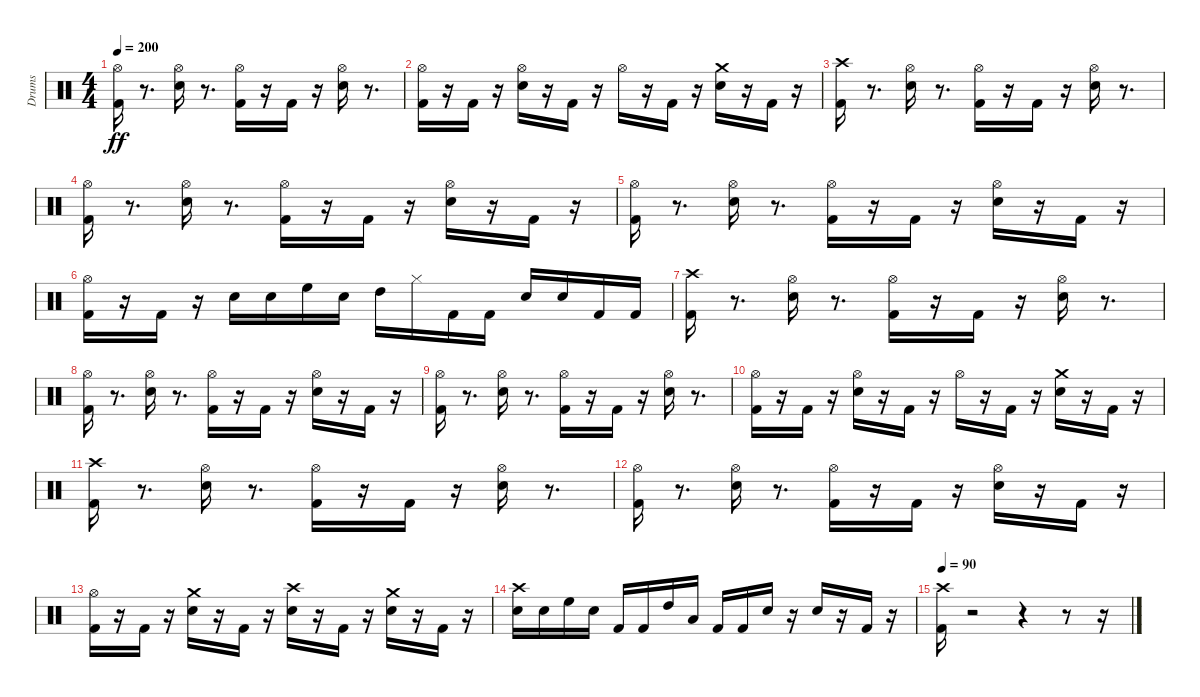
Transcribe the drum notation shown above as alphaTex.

\track ("Drums" "Drums") {instrument percussion}
\staff {score}
\articulation defaults
\ts (4 4)
\tempo 200
\clef neutral
\ks c
("Kick (hit) 2" "Hi-Hat (open)").16{dy ff} r.8{d} ("Snare (hit) 2" "Hi-Hat (open)").16 r.8{d} ("Kick (hit) 2" "Hi-Hat (open)").16 r.16 "Kick (hit) 2".16 r.16 ("Snare (hit) 2" "Hi-Hat (open)").16 r.8{d} |
("Kick (hit) 2" "Hi-Hat (open)").16 r.16 "Kick (hit) 2".16 r.16 ("Snare (hit) 2" "Hi-Hat (open)").16 r.16 "Kick (hit) 2".16 r.16 "Hi-Hat (open)".16 r.16 "Kick (hit) 2".16 r.16 ("Snare (hit) 2" "Crash medium (hit)").16 r.16 "Kick (hit) 2".16 r.16 |
("Kick (hit) 2" "Crash high (hit)").16 r.8{d} ("Snare (hit) 2" "Hi-Hat (open)").16 r.8{d} ("Kick (hit) 2" "Hi-Hat (open)").16 r.16 "Kick (hit) 2".16 r.16 ("Snare (hit) 2" "Hi-Hat (open)").16 r.8{d} |
("Kick (hit) 2" "Hi-Hat (open)").16 r.8{d} ("Snare (hit) 2" "Hi-Hat (open)").16 r.8{d} ("Kick (hit) 2" "Hi-Hat (open)").16 r.16 "Kick (hit) 2".16 r.16 ("Snare (hit) 2" "Hi-Hat (open)").16 r.16 "Kick (hit) 2".16 r.16 |
("Kick (hit) 2" "Hi-Hat (open)").16 r.8{d} ("Snare (hit) 2" "Hi-Hat (open)").16 r.8{d} ("Kick (hit) 2" "Hi-Hat (open)").16 r.16 "Kick (hit) 2".16 r.16 ("Snare (hit) 2" "Hi-Hat (open)").16 r.16 "Kick (hit) 2".16 r.16 |
("Kick (hit) 2" "Hi-Hat (open)").16 r.16 "Kick (hit) 2".16 r.16 "Snare (hit) 2".16 "Snare (hit) 2".16 "High Floor Tom (hit)".16 "Snare (hit) 2".16 "High Tom (hit)".16 "Hi-Hat (closed)".16 "Kick (hit) 2".16 "Kick (hit) 2".16 "Snare (hit) 2".16 "Snare (hit) 2".16 "Kick (hit) 2".16 "Kick (hit) 2".16 |
("Kick (hit) 2" "Crash high (hit)").16 r.8{d} ("Snare (hit) 2" "Hi-Hat (open)").16 r.8{d} ("Kick (hit) 2" "Hi-Hat (open)").16 r.16 "Kick (hit) 2".16 r.16 ("Snare (hit) 2" "Hi-Hat (open)").16 r.8{d} |
("Kick (hit) 2" "Hi-Hat (open)").16 r.8{d} ("Snare (hit) 2" "Hi-Hat (open)").16 r.8{d} ("Kick (hit) 2" "Hi-Hat (open)").16 r.16 "Kick (hit) 2".16 r.16 ("Snare (hit) 2" "Hi-Hat (open)").16 r.16 "Kick (hit) 2".16 r.16 |
("Kick (hit) 2" "Hi-Hat (open)").16 r.8{d} ("Snare (hit) 2" "Hi-Hat (open)").16 r.8{d} ("Kick (hit) 2" "Hi-Hat (open)").16 r.16 "Kick (hit) 2".16 r.16 ("Snare (hit) 2" "Hi-Hat (open)").16 r.8{d} |
("Kick (hit) 2" "Hi-Hat (open)").16 r.16 "Kick (hit) 2".16 r.16 ("Snare (hit) 2" "Hi-Hat (open)").16 r.16 "Kick (hit) 2".16 r.16 "Hi-Hat (open)".16 r.16 "Kick (hit) 2".16 r.16 ("Snare (hit) 2" "Crash medium (hit)").16 r.16 "Kick (hit) 2".16 r.16 |
("Kick (hit) 2" "Crash high (hit)").16 r.8{d} ("Snare (hit) 2" "Hi-Hat (open)").16 r.8{d} ("Kick (hit) 2" "Hi-Hat (open)").16 r.16 "Kick (hit) 2".16 r.16 ("Snare (hit) 2" "Hi-Hat (open)").16 r.8{d} |
("Kick (hit) 2" "Hi-Hat (open)").16 r.8{d} ("Snare (hit) 2" "Hi-Hat (open)").16 r.8{d} ("Kick (hit) 2" "Hi-Hat (open)").16 r.16 "Kick (hit) 2".16 r.16 ("Snare (hit) 2" "Hi-Hat (open)").16 r.16 "Kick (hit) 2".16 r.16 |
("Kick (hit) 2" "Hi-Hat (open)").16 r.16 "Kick (hit) 2".16 r.16 ("Snare (hit) 2" "Crash medium (hit)").16 r.16 "Kick (hit) 2".16 r.16 ("Snare (hit) 2" "Crash high (hit)").16 r.16 "Kick (hit) 2".16 r.16 ("Snare (hit) 2" "Crash medium (hit)").16 r.16 "Kick (hit) 2".16 r.16 |
("Snare (hit) 2" "Crash high (hit)").16 "Snare (hit) 2".16 "High Floor Tom (hit)".16 "Snare (hit) 2".16 "Kick (hit) 2".16 "Kick (hit) 2".16 "High Tom (hit)".16 "Low Tom (hit)".16 "Kick (hit) 2".16 "Kick (hit) 2".16 "Snare (hit) 2".16 r.16 "Snare (hit) 2".16 r.16 "Kick (hit) 2".16 r.16 |
\tempo 90
("Kick (hit) 2" "Crash high (hit)").16 r.2 r.4 r.8 r.16
